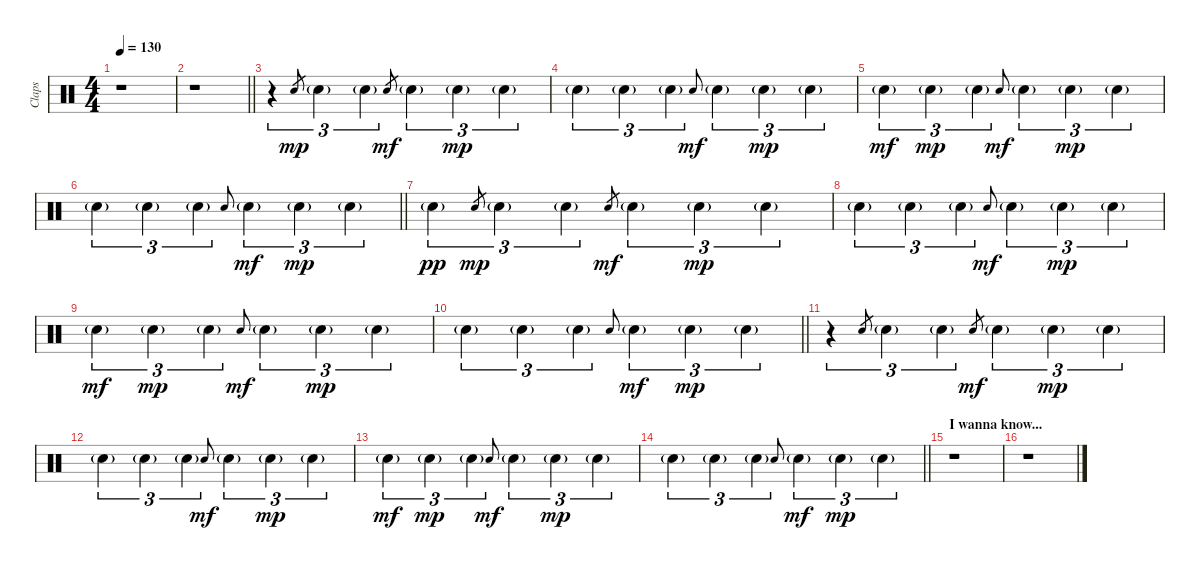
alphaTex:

\track ("Claps" "Claps") {instrument percussion}
\staff {score}
\articulation defaults
\ts (4 4)
\tempo 130
\clef neutral
\ks c
r.1{dy mp} |
\barLineRight lightlight
r.1 |
r.4{tu (3 2)} "Hand Clap (hit)".8{gr} "Hand Clap (hit)"{g}.4{tu (3 2)} "Hand Clap (hit)"{g}.4{tu (3 2)} "Hand Clap (hit)".8{gr dy mf} "Hand Clap (hit)"{g}.4{tu (3 2)} "Hand Clap (hit)"{g}.4{tu (3 2) dy mp} "Hand Clap (hit)"{g}.4{tu (3 2)} |
"Hand Clap (hit)"{g}.4{tu (3 2)} "Hand Clap (hit)"{g}.4{tu (3 2)} "Hand Clap (hit)"{g}.4{tu (3 2)} "Hand Clap (hit)".8{gr onbeat dy mf} "Hand Clap (hit)"{g}.4{tu (3 2)} "Hand Clap (hit)"{g}.4{tu (3 2) dy mp} "Hand Clap (hit)"{g}.4{tu (3 2)} |
"Hand Clap (hit)"{g}.4{tu (3 2) dy mf} "Hand Clap (hit)"{g}.4{tu (3 2) dy mp} "Hand Clap (hit)"{g}.4{tu (3 2)} "Hand Clap (hit)".8{gr onbeat dy mf} "Hand Clap (hit)"{g}.4{tu (3 2)} "Hand Clap (hit)"{g}.4{tu (3 2) dy mp} "Hand Clap (hit)"{g}.4{tu (3 2)} |
\barLineRight lightlight "Hand Clap (hit)"{g}.4{tu (3 2)} "Hand Clap (hit)"{g}.4{tu (3 2)} "Hand Clap (hit)"{g}.4{tu (3 2)} "Hand Clap (hit)".8{gr onbeat} "Hand Clap (hit)"{g}.4{tu (3 2) dy mf} "Hand Clap (hit)"{g}.4{tu (3 2) dy mp} "Hand Clap (hit)"{g}.4{tu (3 2)}
|
"Hand Clap (hit)"{g}.4{tu (3 2) dy pp} "Hand Clap (hit)".8{gr dy mp} "Hand Clap (hit)"{g}.4{tu (3 2)} "Hand Clap (hit)"{g}.4{tu (3 2)} "Hand Clap (hit)".8{gr dy mf} "Hand Clap (hit)"{g}.4{tu (3 2)} "Hand Clap (hit)"{g}.4{tu (3 2) dy mp} "Hand Clap (hit)"{g}.4{tu (3 2)} |
"Hand Clap (hit)"{g}.4{tu (3 2)} "Hand Clap (hit)"{g}.4{tu (3 2)} "Hand Clap (hit)"{g}.4{tu (3 2)} "Hand Clap (hit)".8{gr onbeat dy mf} "Hand Clap (hit)"{g}.4{tu (3 2)} "Hand Clap (hit)"{g}.4{tu (3 2) dy mp} "Hand Clap (hit)"{g}.4{tu (3 2)} |
"Hand Clap (hit)"{g}.4{tu (3 2) dy mf} "Hand Clap (hit)"{g}.4{tu (3 2) dy mp} "Hand Clap (hit)"{g}.4{tu (3 2)} "Hand Clap (hit)".8{gr onbeat dy mf} "Hand Clap (hit)"{g}.4{tu (3 2)} "Hand Clap (hit)"{g}.4{tu (3 2) dy mp} "Hand Clap (hit)"{g}.4{tu (3 2)} |
\barLineRight lightlight "Hand Clap (hit)"{g}.4{tu (3 2)} "Hand Clap (hit)"{g}.4{tu (3 2)} "Hand Clap (hit)"{g}.4{tu (3 2)} "Hand Clap (hit)".8{gr onbeat} "Hand Clap (hit)"{g}.4{tu (3 2) dy mf} "Hand Clap (hit)"{g}.4{tu (3 2) dy mp} "Hand Clap (hit)"{g}.4{tu (3 2)}
|
r.4{tu (3 2)} "Hand Clap (hit)".8{gr} "Hand Clap (hit)"{g}.4{tu (3 2)} "Hand Clap (hit)"{g}.4{tu (3 2)} "Hand Clap (hit)".8{gr dy mf} "Hand Clap (hit)"{g}.4{tu (3 2)} "Hand Clap (hit)"{g}.4{tu (3 2) dy mp} "Hand Clap (hit)"{g}.4{tu (3 2)} |
"Hand Clap (hit)"{g}.4{tu (3 2)} "Hand Clap (hit)"{g}.4{tu (3 2)} "Hand Clap (hit)"{g}.4{tu (3 2)} "Hand Clap (hit)".8{gr onbeat dy mf} "Hand Clap (hit)"{g}.4{tu (3 2)} "Hand Clap (hit)"{g}.4{tu (3 2) dy mp} "Hand Clap (hit)"{g}.4{tu (3 2)} |
"Hand Clap (hit)"{g}.4{tu (3 2) dy mf} "Hand Clap (hit)"{g}.4{tu (3 2) dy mp} "Hand Clap (hit)"{g}.4{tu (3 2)} "Hand Clap (hit)".8{gr onbeat dy mf} "Hand Clap (hit)"{g}.4{tu (3 2)} "Hand Clap (hit)"{g}.4{tu (3 2) dy mp} "Hand Clap (hit)"{g}.4{tu (3 2)} |
\barLineRight lightlight "Hand Clap (hit)"{g}.4{tu (3 2)} "Hand Clap (hit)"{g}.4{tu (3 2)} "Hand Clap (hit)"{g}.4{tu (3 2)} "Hand Clap (hit)".8{gr onbeat} "Hand Clap (hit)"{g}.4{tu (3 2) dy mf} "Hand Clap (hit)"{g}.4{tu (3 2) dy mp} "Hand Clap (hit)"{g}.4{tu (3 2)}
|
\section ("" "I wanna know...")
r.1 |
r.1
